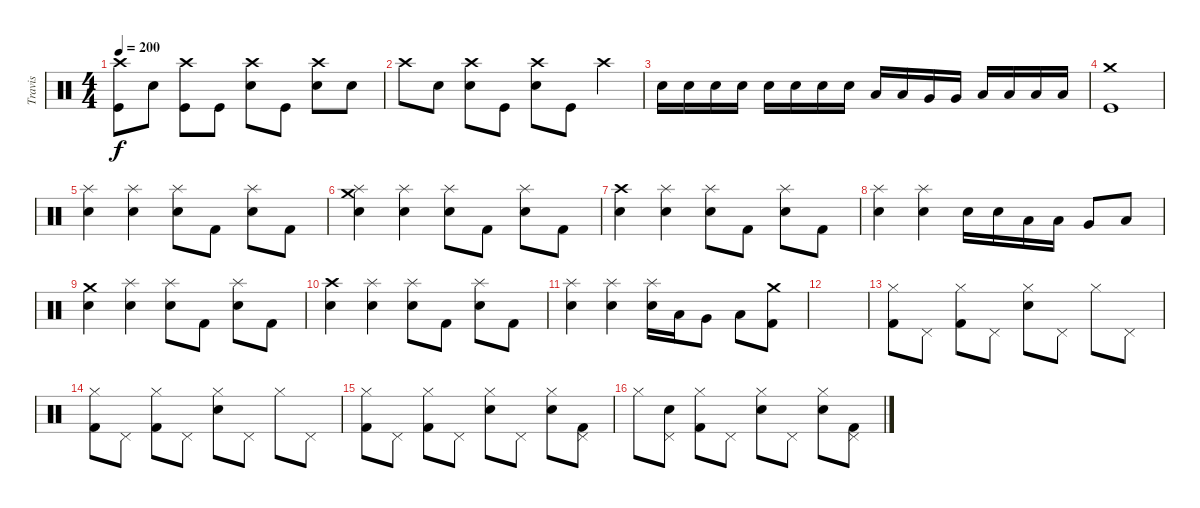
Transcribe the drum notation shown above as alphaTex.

\track ("Travis" "Travis") {instrument percussion}
\staff {score}
\articulation defaults
\ts (4 4)
\tempo 200
\clef neutral
\ks c
("Kick (hit)" "Crash high (hit)").8{dy f} "Snare (hit) 2".8 ("Kick (hit)" "Crash high (hit)").8 "Kick (hit)".8 ("Snare (hit) 2" "Crash high (hit)").8 "Kick (hit)".8 ("Snare (hit) 2" "Crash high (hit)").8 "Snare (hit) 2".8 |
"Crash high (hit)".8 "Snare (hit) 2".8 ("Snare (hit) 2" "Crash high (hit)").8 "Kick (hit)".8 ("Snare (hit) 2" "Crash high (hit)").8 "Kick (hit)".8 "Crash high (hit)".4 |
"Snare (hit) 2".16 "Snare (hit) 2".16 "Snare (hit) 2".16 "Snare (hit) 2".16 "Snare (hit) 2".16 "Snare (hit) 2".16 "Snare (hit) 2".16 "Snare (hit) 2".16 "Low Tom (hit)".16 "Low Tom (hit)".16 "Very Low Tom (hit)".16 "Very Low Tom (hit)".16 "Low Floor Tom (hit)".16 "Low Floor Tom (hit)".16 "Low Floor Tom (hit)".16 "Low Floor Tom (hit)".16 |
("Kick (hit)" "Crash medium (hit)").1 |
("Snare (hit) 2" "Splash (hit)").4 ("Snare (hit) 2" "Splash (hit)").4 ("Snare (hit) 2" "Splash (hit)").8 "Kick (hit) 2".8 ("Snare (hit) 2" "Splash (hit)").8 "Kick (hit) 2".8 |
("Snare (hit) 2" "Splash (hit)" "Crash medium (hit)").4 ("Snare (hit) 2" "Splash (hit)").4 ("Snare (hit) 2" "Splash (hit)").8 "Kick (hit) 2".8 ("Snare (hit) 2" "Splash (hit)").8 "Kick (hit) 2".8 |
("Snare (hit) 2" "Crash high (hit)").4 ("Snare (hit) 2" "Splash (hit)").4 ("Snare (hit) 2" "Splash (hit)").8 "Kick (hit) 2".8 ("Snare (hit) 2" "Splash (hit)").8 "Kick (hit) 2".8 |
("Snare (hit) 2" "Splash (hit)").4 ("Snare (hit) 2" "Splash (hit)").4 "Snare (hit) 2".16 "Snare (hit) 2".16 "Low Tom (hit)".16 "Low Tom (hit)".16 "Very Low Tom (hit)".8 "Low Floor Tom (hit)".8 |
("Snare (hit) 2" "Crash medium (hit)").4 ("Snare (hit) 2" "Splash (hit)").4 ("Snare (hit) 2" "Splash (hit)").8 "Kick (hit) 2".8 ("Snare (hit) 2" "Splash (hit)").8 "Kick (hit) 2".8 |
("Snare (hit) 2" "Crash high (hit)").4 ("Snare (hit) 2" "Splash (hit)").4 ("Snare (hit) 2" "Splash (hit)").8 "Kick (hit) 2".8 ("Snare (hit) 2" "Splash (hit)").8 "Kick (hit) 2".8 |
("Snare (hit) 2" "Splash (hit)").4 ("Snare (hit) 2" "Splash (hit)").4 ("Snare (hit) 2" "Splash (hit)").16 "Low Tom (hit)".16 "Very Low Tom (hit)".8 "Low Floor Tom (hit)".8 ("Kick (hit) 2" "Crash medium (hit)").8 |
|
("Kick (hit) 2" "Hi-Hat (closed)").8 "Pedal Hi-Hat (hit)".8 ("Kick (hit) 2" "Hi-Hat (closed)").8 "Pedal Hi-Hat (hit)".8 ("Snare (hit) 2" "Hi-Hat (closed)").8 "Pedal Hi-Hat (hit)".8 "Hi-Hat (closed)".8 "Pedal Hi-Hat (hit)".8 |
("Kick (hit) 2" "Hi-Hat (closed)").8 "Pedal Hi-Hat (hit)".8 ("Kick (hit) 2" "Hi-Hat (closed)").8 "Pedal Hi-Hat (hit)".8 ("Snare (hit) 2" "Hi-Hat (closed)").8 "Pedal Hi-Hat (hit)".8 "Hi-Hat (closed)".8 "Pedal Hi-Hat (hit)".8 |
("Kick (hit) 2" "Hi-Hat (closed)").8 "Pedal Hi-Hat (hit)".8 ("Kick (hit) 2" "Hi-Hat (closed)").8 "Pedal Hi-Hat (hit)".8 ("Snare (hit) 2" "Hi-Hat (closed)").8 "Pedal Hi-Hat (hit)".8 ("Snare (hit) 2" "Hi-Hat (closed)").8 ("Kick (hit) 2" "Pedal Hi-Hat (hit)").8 |
"Hi-Hat (closed)".8 ("Snare (hit) 2" "Pedal Hi-Hat (hit)").8 ("Kick (hit) 2" "Hi-Hat (closed)").8 "Pedal Hi-Hat (hit)".8 ("Snare (hit) 2" "Hi-Hat (closed)").8 "Pedal Hi-Hat (hit)".8 ("Snare (hit) 2" "Hi-Hat (closed)").8 ("Kick (hit) 2" "Pedal Hi-Hat (hit)").8
